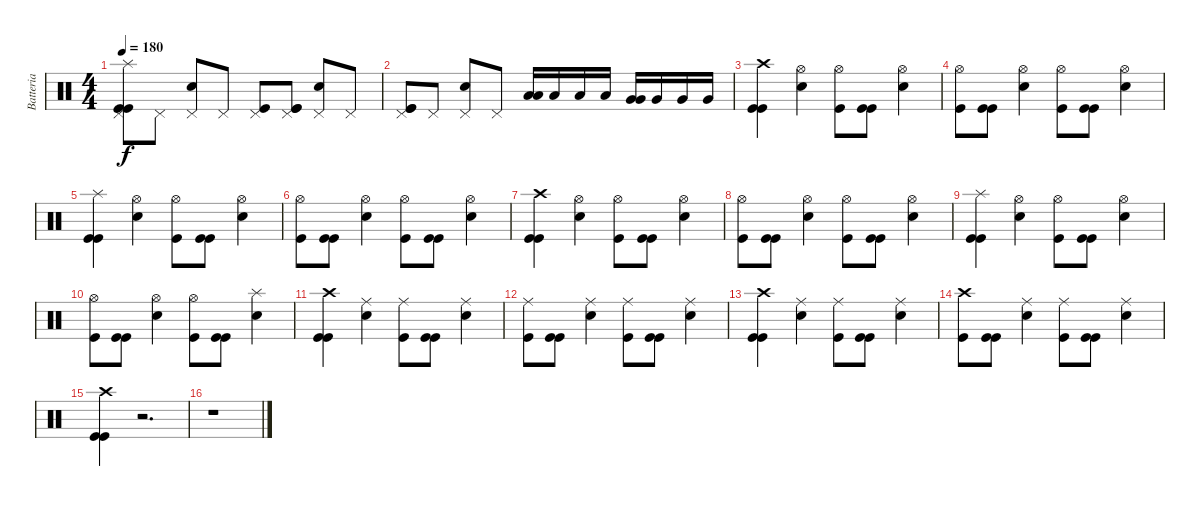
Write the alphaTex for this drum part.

\track ("Batteria" "Batteria") {instrument percussion}
\staff {score}
\articulation defaults
\ts (4 4)
\tempo 180
\clef neutral
\ks c
("Kick (hit)" "Kick (hit)" "Pedal Hi-Hat (hit)" "Splash (hit)").8{dy f} "Pedal Hi-Hat (hit)".8 ("Snare (hit) 2" "Pedal Hi-Hat (hit)").8 "Pedal Hi-Hat (hit)".8 ("Kick (hit)" "Pedal Hi-Hat (hit)").8 ("Kick (hit)" "Kick (hit)" "Pedal Hi-Hat (hit)").8 ("Snare (hit) 2" "Pedal Hi-Hat (hit)").8 "Pedal Hi-Hat (hit)".8 |
("Pedal Hi-Hat (hit)" "Kick (hit)" "Kick (hit)").8 "Pedal Hi-Hat (hit)".8 ("Snare (hit) 2" "Pedal Hi-Hat (hit)").8 "Pedal Hi-Hat (hit)".8 ("Low Tom (hit)" "Low Tom (hit)").16 "Low Tom (hit)".16 "Low Tom (hit)".16 "Low Tom (hit)".16 ("Very Low Tom (hit)" "Very Low Tom (hit)").16 "Very Low Tom (hit)".16 "Very Low Tom (hit)".16 "Very Low Tom (hit)".16 |
("Kick (hit)" "Crash high (hit)" "Kick (hit)").4 ("Snare (hit) 2" "Hi-Hat (open)").4 ("Kick (hit)" "Hi-Hat (open)").8 ("Kick (hit)" "Kick (hit)").8 ("Snare (hit) 2" "Hi-Hat (open)").4 |
("Kick (hit)" "Hi-Hat (open)").8 ("Kick (hit)" "Kick (hit)").8 ("Hi-Hat (open)" "Snare (hit) 2").4 ("Kick (hit)" "Hi-Hat (open)").8 ("Kick (hit)" "Kick (hit)").8 ("Hi-Hat (open)" "Snare (hit) 2").4 |
("Kick (hit)" "Kick (hit)" "Splash (hit)").4 ("Snare (hit) 2" "Hi-Hat (open)").4 ("Kick (hit)" "Hi-Hat (open)").8 ("Kick (hit)" "Kick (hit)").8 ("Snare (hit) 2" "Hi-Hat (open)").4 |
("Kick (hit)" "Hi-Hat (open)").8 ("Kick (hit)" "Kick (hit)").8 ("Hi-Hat (open)" "Snare (hit) 2").4 ("Kick (hit)" "Hi-Hat (open)").8 ("Kick (hit)" "Kick (hit)").8 ("Hi-Hat (open)" "Snare (hit) 2").4 |
("Kick (hit)" "Crash high (hit)" "Kick (hit)").4 ("Snare (hit) 2" "Hi-Hat (open)").4 ("Kick (hit)" "Hi-Hat (open)").8 ("Kick (hit)" "Kick (hit)").8 ("Snare (hit) 2" "Hi-Hat (open)").4 |
("Kick (hit)" "Hi-Hat (open)").8 ("Kick (hit)" "Kick (hit)").8 ("Hi-Hat (open)" "Snare (hit) 2").4 ("Kick (hit)" "Hi-Hat (open)").8 ("Kick (hit)" "Kick (hit)").8 ("Hi-Hat (open)" "Snare (hit) 2").4 |
("Kick (hit)" "Kick (hit)" "Splash (hit)").4 ("Snare (hit) 2" "Hi-Hat (open)").4 ("Kick (hit)" "Hi-Hat (open)").8 ("Kick (hit)" "Kick (hit)").8 ("Snare (hit) 2" "Hi-Hat (open)").4 |
("Kick (hit)" "Hi-Hat (open)").8 ("Kick (hit)" "Kick (hit)").8 ("Hi-Hat (open)" "Snare (hit) 2").4 ("Kick (hit)" "Hi-Hat (open)").8 ("Kick (hit)" "Kick (hit)").8 ("Snare (hit) 2" "Splash (hit)").4 |
("Kick (hit)" "Crash high (hit)" "Kick (hit)").4 ("Snare (hit) 2" "Ride (middle)").4 ("Kick (hit)" "Ride (middle)").8 ("Kick (hit)" "Kick (hit)").8 ("Snare (hit) 2" "Ride (middle)").4 |
("Kick (hit)" "Ride (middle)").8 ("Kick (hit)" "Kick (hit)").8 ("Snare (hit) 2" "Ride (middle)").4 ("Kick (hit)" "Ride (middle)").8 ("Kick (hit)" "Kick (hit)").8 ("Snare (hit) 2" "Ride (middle)").4 |
("Kick (hit)" "Kick (hit)" "Crash high (hit)").4 ("Snare (hit) 2" "Ride (middle)").4 ("Kick (hit)" "Ride (middle)").8 ("Kick (hit)" "Kick (hit)").8 ("Snare (hit) 2" "Ride (middle)").4 |
("Kick (hit)" "Crash high (hit)").8 ("Kick (hit)" "Kick (hit)").8 ("Snare (hit) 2" "Ride (middle)").4 ("Kick (hit)" "Ride (middle)").8 ("Kick (hit)" "Kick (hit)").8 ("Snare (hit) 2" "Ride (middle)").4 |
("Kick (hit)" "Kick (hit)" "Crash high (hit)").4 r.2{d} |
r.1
